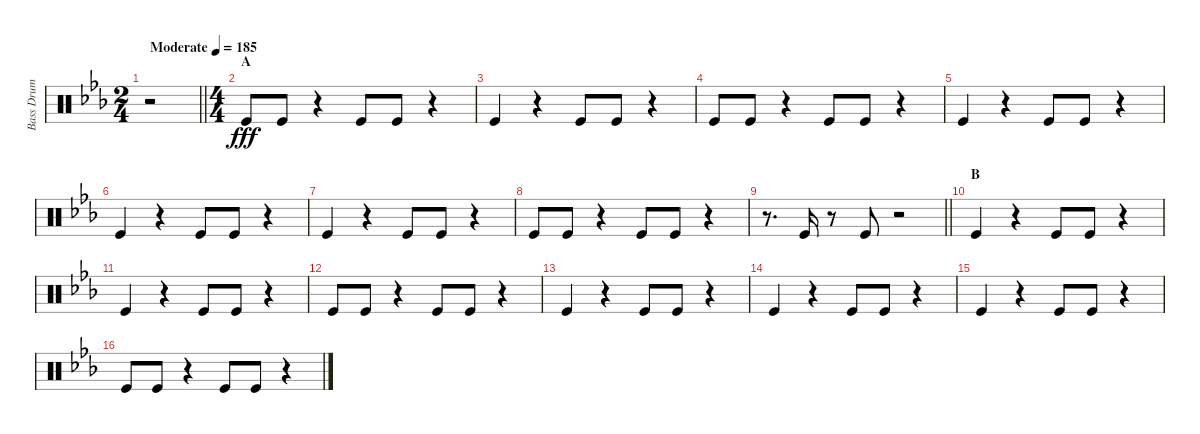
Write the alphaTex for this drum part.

\track ("Bass Drum" "Bass Drum") {instrument percussion}
\staff {score}
\articulation defaults
\ts (2 4)
\tempo (185 "Moderate")
\clef neutral
\barLineRight lightlight
\ks eb
r.2{dy fff} |
\ts (4 4)
\section ("" "A")
"Kick (hit)".8 "Kick (hit)".8 r.4 "Kick (hit)".8 "Kick (hit)".8 r.4 |
"Kick (hit)".4 r.4 "Kick (hit)".8 "Kick (hit)".8 r.4 |
"Kick (hit)".8 "Kick (hit)".8 r.4 "Kick (hit)".8 "Kick (hit)".8 r.4 |
"Kick (hit)".4 r.4 "Kick (hit)".8 "Kick (hit)".8 r.4 |
"Kick (hit)".4 r.4 "Kick (hit)".8 "Kick (hit)".8 r.4 |
"Kick (hit)".4 r.4 "Kick (hit)".8 "Kick (hit)".8 r.4 |
"Kick (hit)".8 "Kick (hit)".8 r.4 "Kick (hit)".8 "Kick (hit)".8 r.4 |
\barLineRight lightlight
r.8{d} "Kick (hit)".16 r.8 "Kick (hit)".8 r.2 |
\section ("" "B")
"Kick (hit)".4 r.4 "Kick (hit)".8 "Kick (hit)".8 r.4 |
"Kick (hit)".4 r.4 "Kick (hit)".8 "Kick (hit)".8 r.4 |
"Kick (hit)".8 "Kick (hit)".8 r.4 "Kick (hit)".8 "Kick (hit)".8 r.4 |
"Kick (hit)".4 r.4 "Kick (hit)".8 "Kick (hit)".8 r.4 |
"Kick (hit)".4 r.4 "Kick (hit)".8 "Kick (hit)".8 r.4 |
"Kick (hit)".4 r.4 "Kick (hit)".8 "Kick (hit)".8 r.4 |
"Kick (hit)".8 "Kick (hit)".8 r.4 "Kick (hit)".8 "Kick (hit)".8 r.4
